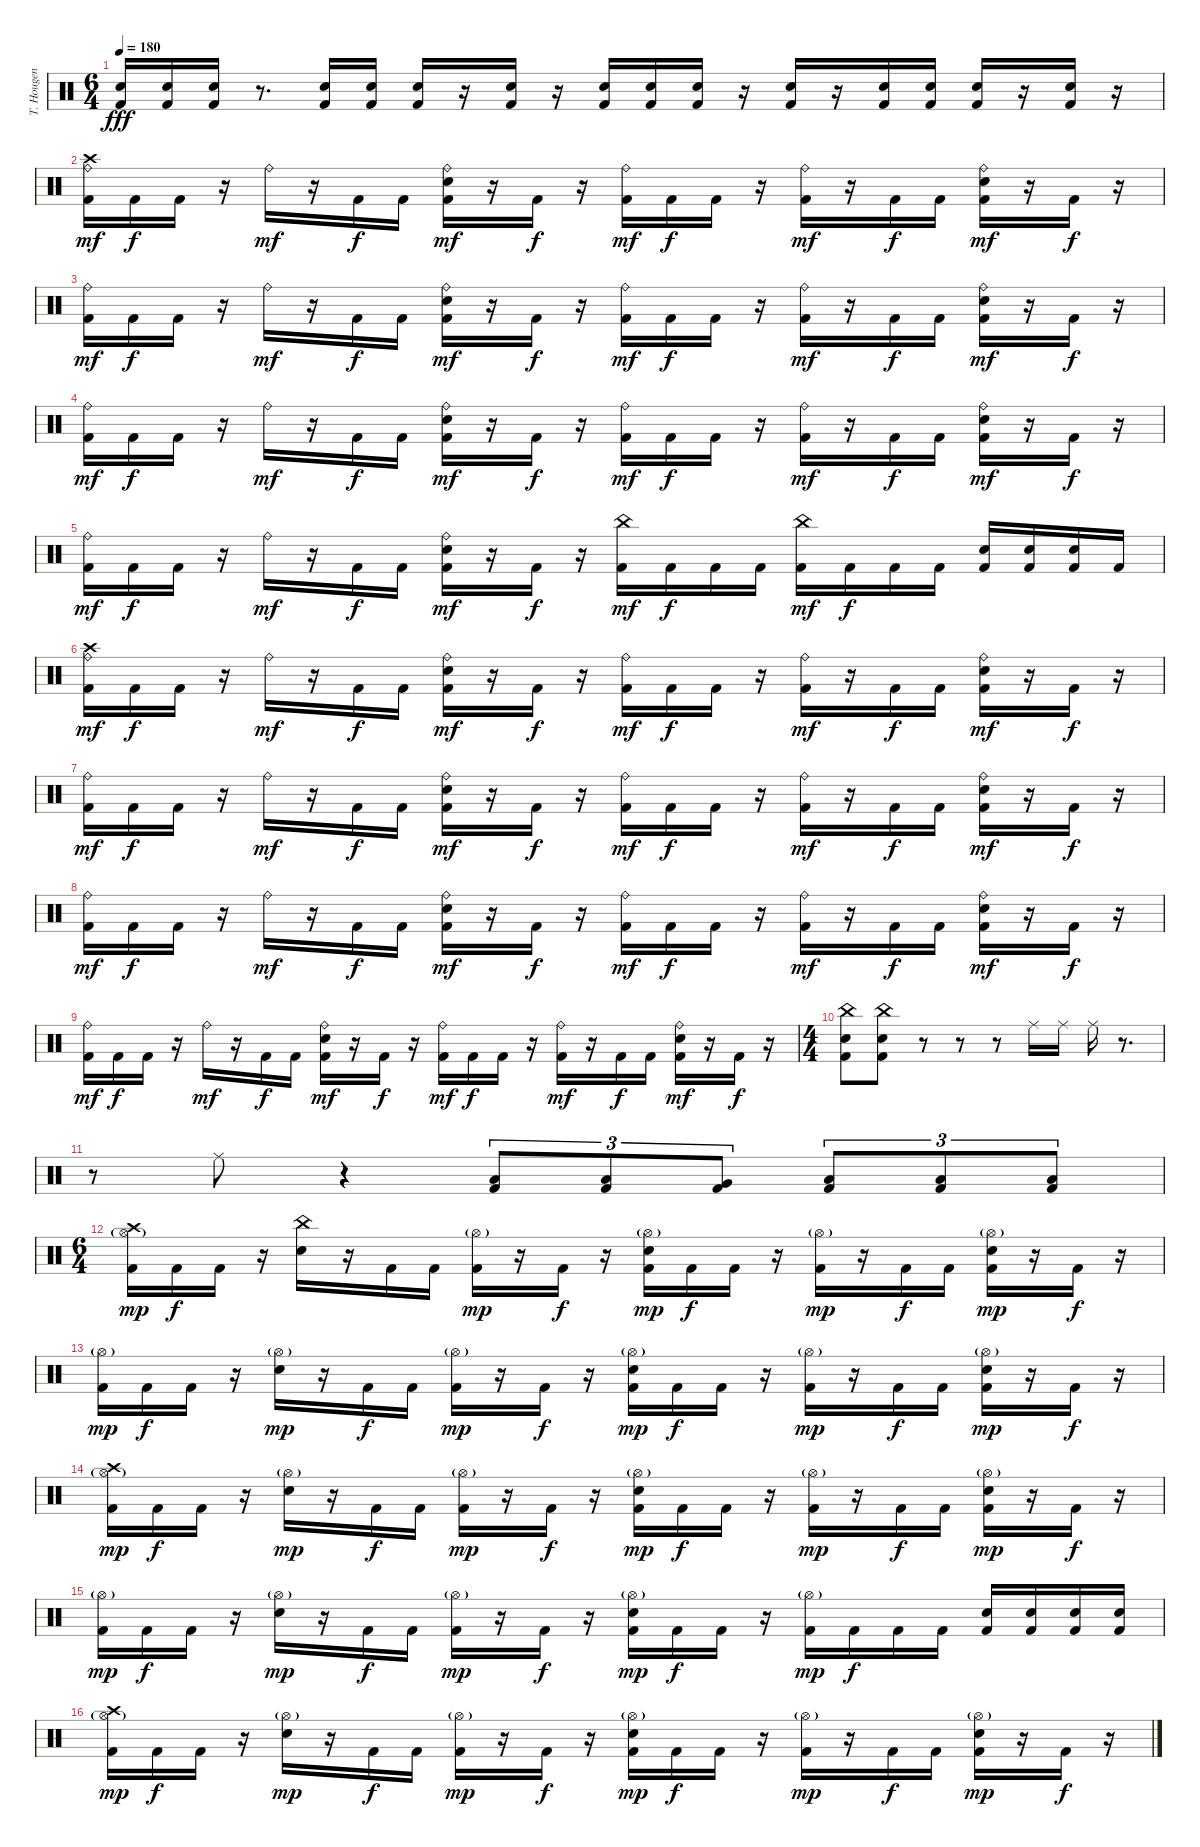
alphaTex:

\track ("T. Hougen - Drums" "T. Hougen ") {instrument percussion}
\staff {score}
\articulation defaults
\ts (6 4)
\tempo 180
\clef neutral
\ks c
("Electric Snare (hit)" "Kick (hit) 2").16{dy fff volume 16} ("Electric Snare (hit)" "Kick (hit) 2").16 ("Electric Snare (hit)" "Kick (hit) 2").16 r.8{d} ("Electric Snare (hit)" "Kick (hit) 2").16 ("Electric Snare (hit)" "Kick (hit) 2").16 ("Electric Snare (hit)" "Kick (hit) 2").16 r.16 ("Electric Snare (hit)" "Kick (hit) 2").16 r.16 ("Electric Snare (hit)" "Kick (hit) 2").16 ("Electric Snare (hit)" "Kick (hit) 2").16 ("Electric Snare (hit)" "Kick (hit) 2").16 r.16 ("Electric Snare (hit)" "Kick (hit) 2").16 r.16 ("Electric Snare (hit)" "Kick (hit) 2").16 ("Electric Snare (hit)" "Kick (hit) 2").16 ("Electric Snare (hit)" "Kick (hit) 2").16 r.16 ("Electric Snare (hit)" "Kick (hit) 2").16 r.16 |
("Crash high (hit)" "Ride (bell)" "Kick (hit) 2").16{dy mf volume 15} "Kick (hit) 2".16{dy f} "Kick (hit) 2".16 r.16 "Ride (bell)".16{dy mf} r.16 "Kick (hit) 2".16{dy f} "Kick (hit) 2".16 ("Ride (bell)" "Electric Snare (hit)" "Kick (hit) 2").16{dy mf} r.16 "Kick (hit) 2".16{dy f} r.16 ("Ride (bell)" "Kick (hit) 2").16{dy mf} "Kick (hit) 2".16{dy f} "Kick (hit) 2".16 r.16 ("Ride (bell)" "Kick (hit) 2").16{dy mf} r.16 "Kick (hit) 2".16{dy f} "Kick (hit) 2".16 ("Ride (bell)" "Electric Snare (hit)" "Kick (hit) 2").16{dy mf} r.16 "Kick (hit) 2".16{dy f} r.16 |
("Ride (bell)" "Kick (hit) 2").16{dy mf} "Kick (hit) 2".16{dy f} "Kick (hit) 2".16 r.16 "Ride (bell)".16{dy mf} r.16 "Kick (hit) 2".16{dy f} "Kick (hit) 2".16 ("Ride (bell)" "Electric Snare (hit)" "Kick (hit) 2").16{dy mf} r.16 "Kick (hit) 2".16{dy f} r.16 ("Ride (bell)" "Kick (hit) 2").16{dy mf} "Kick (hit) 2".16{dy f} "Kick (hit) 2".16 r.16 ("Ride (bell)" "Kick (hit) 2").16{dy mf} r.16 "Kick (hit) 2".16{dy f} "Kick (hit) 2".16 ("Ride (bell)" "Electric Snare (hit)" "Kick (hit) 2").16{dy mf} r.16 "Kick (hit) 2".16{dy f} r.16 |
("Ride (bell)" "Kick (hit) 2").16{dy mf} "Kick (hit) 2".16{dy f} "Kick (hit) 2".16 r.16 "Ride (bell)".16{dy mf} r.16 "Kick (hit) 2".16{dy f} "Kick (hit) 2".16 ("Ride (bell)" "Electric Snare (hit)" "Kick (hit) 2").16{dy mf} r.16 "Kick (hit) 2".16{dy f} r.16 ("Ride (bell)" "Kick (hit) 2").16{dy mf} "Kick (hit) 2".16{dy f} "Kick (hit) 2".16 r.16 ("Ride (bell)" "Kick (hit) 2").16{dy mf} r.16 "Kick (hit) 2".16{dy f} "Kick (hit) 2".16 ("Ride (bell)" "Electric Snare (hit)" "Kick (hit) 2").16{dy mf} r.16 "Kick (hit) 2".16{dy f} r.16 |
("Ride (bell)" "Kick (hit) 2").16{dy mf} "Kick (hit) 2".16{dy f} "Kick (hit) 2".16 r.16 "Ride (bell)".16{dy mf} r.16 "Kick (hit) 2".16{dy f} "Kick (hit) 2".16 ("Ride (bell)" "Electric Snare (hit)" "Kick (hit) 2").16{dy mf} r.16 "Kick (hit) 2".16{dy f} r.16 ("China (hit)" "Kick (hit) 2").16{dy mf} "Kick (hit) 2".16{dy f} "Kick (hit) 2".16 "Kick (hit) 2".16 ("China (hit)" "Kick (hit) 2").16{dy mf} "Kick (hit) 2".16{dy f} "Kick (hit) 2".16 "Kick (hit) 2".16 ("Electric Snare (hit)" "Kick (hit) 2").16 ("Electric Snare (hit)" "Kick (hit) 2").16 ("Electric Snare (hit)" "Kick (hit) 2").16 "Kick (hit) 2".16 |
("Crash high (hit)" "Ride (bell)" "Kick (hit) 2").16{dy mf} "Kick (hit) 2".16{dy f} "Kick (hit) 2".16 r.16 "Ride (bell)".16{dy mf} r.16 "Kick (hit) 2".16{dy f} "Kick (hit) 2".16 ("Ride (bell)" "Electric Snare (hit)" "Kick (hit) 2").16{dy mf} r.16 "Kick (hit) 2".16{dy f} r.16 ("Ride (bell)" "Kick (hit) 2").16{dy mf} "Kick (hit) 2".16{dy f} "Kick (hit) 2".16 r.16 ("Ride (bell)" "Kick (hit) 2").16{dy mf} r.16 "Kick (hit) 2".16{dy f} "Kick (hit) 2".16 ("Ride (bell)" "Electric Snare (hit)" "Kick (hit) 2").16{dy mf} r.16 "Kick (hit) 2".16{dy f} r.16 |
("Ride (bell)" "Kick (hit) 2").16{dy mf} "Kick (hit) 2".16{dy f} "Kick (hit) 2".16 r.16 "Ride (bell)".16{dy mf} r.16 "Kick (hit) 2".16{dy f} "Kick (hit) 2".16 ("Ride (bell)" "Electric Snare (hit)" "Kick (hit) 2").16{dy mf} r.16 "Kick (hit) 2".16{dy f} r.16 ("Ride (bell)" "Kick (hit) 2").16{dy mf} "Kick (hit) 2".16{dy f} "Kick (hit) 2".16 r.16 ("Ride (bell)" "Kick (hit) 2").16{dy mf} r.16 "Kick (hit) 2".16{dy f} "Kick (hit) 2".16 ("Ride (bell)" "Electric Snare (hit)" "Kick (hit) 2").16{dy mf} r.16 "Kick (hit) 2".16{dy f} r.16 |
("Ride (bell)" "Kick (hit) 2").16{dy mf} "Kick (hit) 2".16{dy f} "Kick (hit) 2".16 r.16 "Ride (bell)".16{dy mf} r.16 "Kick (hit) 2".16{dy f} "Kick (hit) 2".16 ("Ride (bell)" "Electric Snare (hit)" "Kick (hit) 2").16{dy mf} r.16 "Kick (hit) 2".16{dy f} r.16 ("Ride (bell)" "Kick (hit) 2").16{dy mf} "Kick (hit) 2".16{dy f} "Kick (hit) 2".16 r.16 ("Ride (bell)" "Kick (hit) 2").16{dy mf} r.16 "Kick (hit) 2".16{dy f} "Kick (hit) 2".16 ("Ride (bell)" "Electric Snare (hit)" "Kick (hit) 2").16{dy mf} r.16 "Kick (hit) 2".16{dy f} r.16 |
("Ride (bell)" "Kick (hit) 2").16{dy mf} "Kick (hit) 2".16{dy f} "Kick (hit) 2".16 r.16 "Ride (bell)".16{dy mf} r.16 "Kick (hit) 2".16{dy f} "Kick (hit) 2".16 ("Ride (bell)" "Electric Snare (hit)" "Kick (hit) 2").16{dy mf} r.16 "Kick (hit) 2".16{dy f} r.16 ("Ride (bell)" "Kick (hit) 2").16{dy mf} "Kick (hit) 2".16{dy f} "Kick (hit) 2".16 r.16 ("Ride (bell)" "Kick (hit) 2").16{dy mf} r.16 "Kick (hit) 2".16{dy f} "Kick (hit) 2".16 ("Ride (bell)" "Electric Snare (hit)" "Kick (hit) 2").16{dy mf} r.16 "Kick (hit) 2".16{dy f} r.16 |
\ts (4 4)
("China (hit)" "Electric Snare (hit)" "Kick (hit) 2").8 ("China (hit)" "Electric Snare (hit)" "Kick (hit) 2").8 r.8 r.8 r.8 "Ride (middle)".16 "Ride (middle)".16 "Ride (middle)".16 r.8{d} |
r.8 "Ride (middle)".8 r.4 ("Low Tom (hit)" "Kick (hit) 2").8{tu (3 2)} ("Low Tom (hit)" "Kick (hit) 2").8{tu (3 2)} ("Very Low Tom (hit)" "Kick (hit) 2").8{tu (3 2)} ("Low Floor Tom (hit)" "Kick (hit) 2").8{tu (3 2)} ("Low Floor Tom (hit)" "Kick (hit) 2").8{tu (3 2)} ("Low Floor Tom (hit)" "Kick (hit) 2").8{tu (3 2)} |
\ts (6 4)
("Crash high (hit)" "Hi-Hat (open)"{g} "Kick (hit) 2").16{dy mp} "Kick (hit) 2".16{dy f} "Kick (hit) 2".16 r.16 ("China (hit)" "Electric Snare (hit)").16 r.16 "Kick (hit) 2".16 "Kick (hit) 2".16 ("Hi-Hat (open)"{g} "Kick (hit) 2").16{dy mp} r.16 "Kick (hit) 2".16{dy f} r.16 ("Hi-Hat (open)"{g} "Electric Snare (hit)" "Kick (hit) 2").16{dy mp} "Kick (hit) 2".16{dy f} "Kick (hit) 2".16 r.16 ("Hi-Hat (open)"{g} "Kick (hit) 2").16{dy mp} r.16 "Kick (hit) 2".16{dy f} "Kick (hit) 2".16 ("Hi-Hat (open)"{g} "Electric Snare (hit)" "Kick (hit) 2").16{dy mp} r.16 "Kick (hit) 2".16{dy f} r.16 |
("Hi-Hat (open)"{g} "Kick (hit) 2").16{dy mp} "Kick (hit) 2".16{dy f} "Kick (hit) 2".16 r.16 ("Hi-Hat (open)"{g} "Electric Snare (hit)").16{dy mp} r.16 "Kick (hit) 2".16{dy f} "Kick (hit) 2".16 ("Hi-Hat (open)"{g} "Kick (hit) 2").16{dy mp} r.16 "Kick (hit) 2".16{dy f} r.16 ("Hi-Hat (open)"{g} "Electric Snare (hit)" "Kick (hit) 2").16{dy mp} "Kick (hit) 2".16{dy f} "Kick (hit) 2".16 r.16 ("Hi-Hat (open)"{g} "Kick (hit) 2").16{dy mp} r.16 "Kick (hit) 2".16{dy f} "Kick (hit) 2".16 ("Hi-Hat (open)"{g} "Electric Snare (hit)" "Kick (hit) 2").16{dy mp} r.16 "Kick (hit) 2".16{dy f} r.16 |
("Crash high (hit)" "Hi-Hat (open)"{g} "Kick (hit) 2").16{dy mp} "Kick (hit) 2".16{dy f} "Kick (hit) 2".16 r.16 ("Hi-Hat (open)"{g} "Electric Snare (hit)").16{dy mp} r.16 "Kick (hit) 2".16{dy f} "Kick (hit) 2".16 ("Hi-Hat (open)"{g} "Kick (hit) 2").16{dy mp} r.16 "Kick (hit) 2".16{dy f} r.16 ("Hi-Hat (open)"{g} "Electric Snare (hit)" "Kick (hit) 2").16{dy mp} "Kick (hit) 2".16{dy f} "Kick (hit) 2".16 r.16 ("Hi-Hat (open)"{g} "Kick (hit) 2").16{dy mp} r.16 "Kick (hit) 2".16{dy f} "Kick (hit) 2".16 ("Hi-Hat (open)"{g} "Electric Snare (hit)" "Kick (hit) 2").16{dy mp} r.16 "Kick (hit) 2".16{dy f} r.16 |
("Hi-Hat (open)"{g} "Kick (hit) 2").16{dy mp} "Kick (hit) 2".16{dy f} "Kick (hit) 2".16 r.16 ("Hi-Hat (open)"{g} "Electric Snare (hit)").16{dy mp} r.16 "Kick (hit) 2".16{dy f} "Kick (hit) 2".16 ("Hi-Hat (open)"{g} "Kick (hit) 2").16{dy mp} r.16 "Kick (hit) 2".16{dy f} r.16 ("Hi-Hat (open)"{g} "Electric Snare (hit)" "Kick (hit) 2").16{dy mp} "Kick (hit) 2".16{dy f} "Kick (hit) 2".16 r.16 ("Hi-Hat (open)"{g} "Kick (hit) 2").16{dy mp} "Kick (hit) 2".16{dy f} "Kick (hit) 2".16 "Kick (hit) 2".16 ("Electric Snare (hit)" "Kick (hit) 2").16 ("Electric Snare (hit)" "Kick (hit) 2").16 ("Electric Snare (hit)" "Kick (hit) 2").16 ("Electric Snare (hit)" "Kick (hit) 2").16 |
("Crash high (hit)" "Hi-Hat (open)"{g} "Kick (hit) 2").16{dy mp} "Kick (hit) 2".16{dy f} "Kick (hit) 2".16 r.16 ("Hi-Hat (open)"{g} "Electric Snare (hit)").16{dy mp} r.16 "Kick (hit) 2".16{dy f} "Kick (hit) 2".16 ("Hi-Hat (open)"{g} "Kick (hit) 2").16{dy mp} r.16 "Kick (hit) 2".16{dy f} r.16 ("Hi-Hat (open)"{g} "Electric Snare (hit)" "Kick (hit) 2").16{dy mp} "Kick (hit) 2".16{dy f} "Kick (hit) 2".16 r.16 ("Hi-Hat (open)"{g} "Kick (hit) 2").16{dy mp} r.16 "Kick (hit) 2".16{dy f} "Kick (hit) 2".16 ("Hi-Hat (open)"{g} "Electric Snare (hit)" "Kick (hit) 2").16{dy mp} r.16 "Kick (hit) 2".16{dy f} r.16
